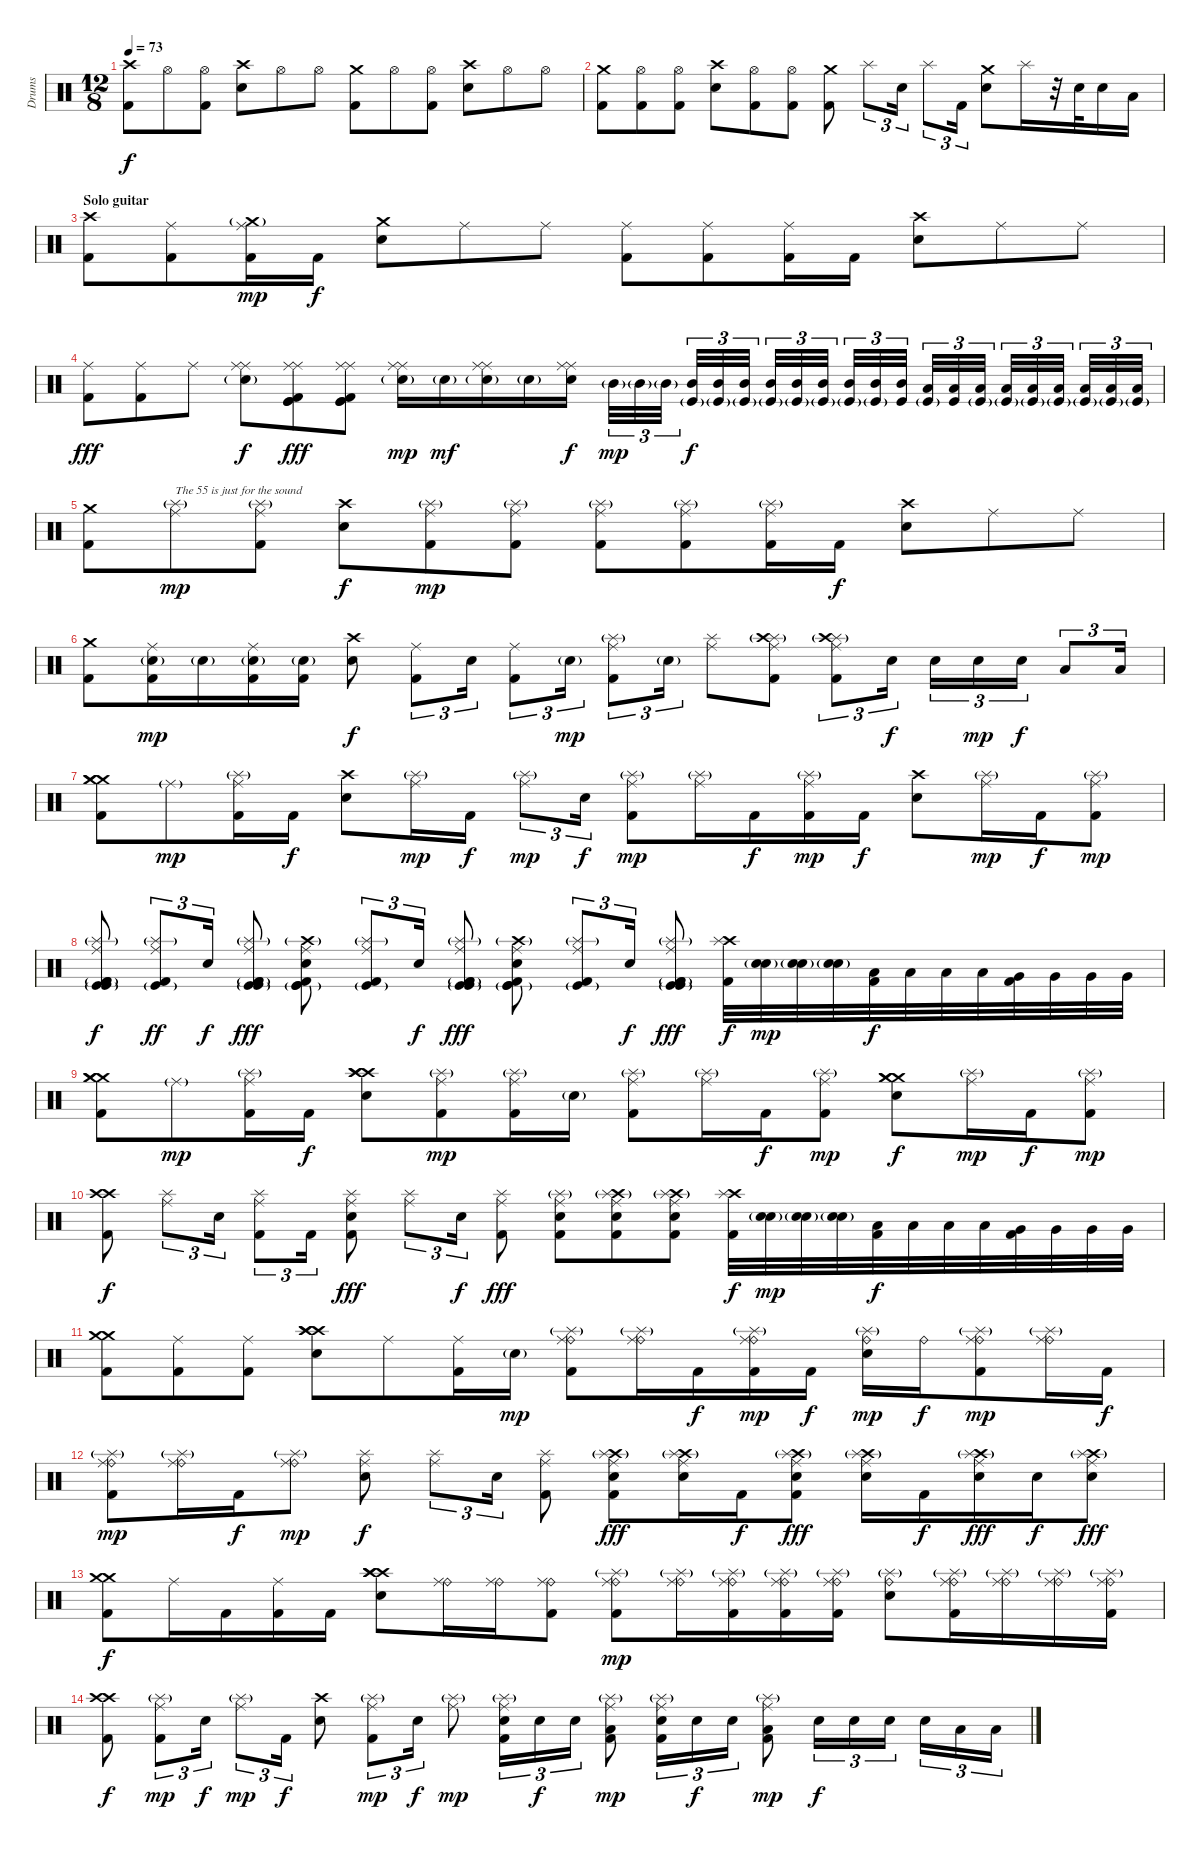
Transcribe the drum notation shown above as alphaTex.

\track ("Drums" "Drums") {instrument percussion}
\staff {score}
\articulation defaults
\ts (12 8)
\section ("" "")
\tempo 73
\clef neutral
\ks c
("Crash high (hit)" "Kick (hit) 2").8{dy f volume 10 balance 8} "Hi-Hat (open)".8 ("Hi-Hat (open)" "Kick (hit) 2").8 ("Electric Snare (hit)" "Crash high (hit)").8 "Hi-Hat (open)".8 "Hi-Hat (open)".8 ("Crash medium (hit)" "Kick (hit) 2").8 "Hi-Hat (open)".8 ("Hi-Hat (open)" "Kick (hit) 2").8 ("Electric Snare (hit)" "Crash high (hit)").8 "Hi-Hat (open)".8 "Hi-Hat (open)".8 |
("Crash medium (hit)" "Kick (hit) 2").8 ("Hi-Hat (open)" "Kick (hit) 2").8 ("Hi-Hat (open)" "Kick (hit) 2").8 ("Electric Snare (hit)" "Crash high (hit)").8 ("Hi-Hat (open)" "Kick (hit) 2").8 ("Hi-Hat (open)" "Kick (hit) 2").8 ("Crash medium (hit)" "Kick (hit) 2").8 "Splash (hit)".8{tu (3 2)} "Electric Snare (hit)".16{tu (3 2)} "Splash (hit)".8{tu (3 2)} "Kick (hit) 2".16{tu (3 2)} ("Electric Snare (hit)" "Crash medium (hit)").8 "Splash (hit)".16 r.32 "Electric Snare (hit)".32 "Electric Snare (hit)".16 "Low Tom (hit)".16 |
\section ("" "Solo guitar")
("Crash high (hit)" "Kick (hit) 2").8 ("Ride (middle)" "Kick (hit) 2").8 ("Crash medium (hit)"{g} "Ride (middle)" "Kick (hit) 2").16{dy mp} "Kick (hit) 2".16{dy f} ("Electric Snare (hit)" "Crash medium (hit)").8 "Ride (middle)".8 "Ride (middle)".8 ("Ride (middle)" "Kick (hit) 2").8 ("Ride (middle)" "Kick (hit) 2").8 ("Ride (middle)" "Kick (hit) 2").16 "Kick (hit) 2".16 ("Electric Snare (hit)" "Crash high (hit)").8 "Ride (middle)".8 "Ride (middle)".8 |
("Ride (middle)" "Kick (hit) 2").8{dy fff} ("Ride (middle)" "Kick (hit) 2").8 "Ride (middle)".8 ("Electric Snare (hit)"{g} "Ride (middle)" "Ride (middle)").8{dy f} ("Kick (hit)" "Kick (hit)" "Ride (middle)" "Ride (middle)" "Kick (hit) 2").8{dy fff} ("Kick (hit)" "Kick (hit)" "Ride (middle)" "Ride (middle)" "Kick (hit) 2").8 ("Electric Snare (hit)"{g} "Ride (middle)" "Ride (middle)").16{dy mp} "Electric Snare (hit)"{g}.16{dy mf} ("Electric Snare (hit)"{g} "Ride (middle)" "Ride (middle)").16 "Electric Snare (hit)"{g}.16 ("Electric Snare (hit)" "Ride (middle)" "Ride (middle)").16{dy f} "Mid Tom (hit)"{g}.32{tu (3 2) dy mp} "Mid Tom (hit)"{g}.32{tu (3 2)} "Mid Tom (hit)"{g}.32{tu (3 2)} ("Kick (hit)"{g} "Mid Tom (hit)").32{tu (3 2) dy f volume 10 balance 0} ("Kick (hit)"{g} "Mid Tom (hit)").32{tu (3 2)} ("Kick (hit)"{g} "Mid Tom (hit)").32{tu (3 2)} ("Kick (hit)"{g} "Mid Tom (hit)").32{tu (3 2)} ("Kick (hit)"{g} "Mid Tom (hit)").32{tu (3 2)} ("Kick (hit)"{g} "Mid Tom (hit)").32{tu (3 2)} ("Kick (hit)"{g} "Mid Tom (hit)").32{tu (3 2)} ("Kick (hit)"{g} "Mid Tom (hit)").32{tu (3 2)} ("Kick (hit)" "Mid Tom (hit)").32{tu (3 2)} ("Kick (hit)"{g} "Low Tom (hit)").32{tu (3 2)} ("Kick (hit)" "Low Tom (hit)").32{tu (3 2)} ("Kick (hit)"{g} "Low Tom (hit)").32{tu (3 2)} ("Kick (hit)"{g} "Low Tom (hit)").32{tu (3 2)} ("Kick (hit)"{g} "Low Tom (hit)").32{tu (3 2)} ("Kick (hit)"{g} "Low Tom (hit)").32{tu (3 2)} ("Kick (hit)"{g} "Low Tom (hit)").32{tu (3 2)} ("Kick (hit)"{g} "Low Tom (hit)").32{tu (3 2)} ("Kick (hit)"{g} "Low Tom (hit)").32{tu (3 2)} |
("Crash medium (hit)" "Kick (hit) 2").8{volume 10 balance 8} ("Splash (hit)"{g} "Ride (middle)").8{txt "The 55 is just for the sound" dy mp} ("Splash (hit)"{g} "Ride (middle)" "Kick (hit) 2").8 ("Electric Snare (hit)" "Crash high (hit)").8{dy f} ("Splash (hit)"{g} "Ride (middle)" "Kick (hit) 2").8{dy mp} ("Splash (hit)"{g} "Ride (middle)" "Kick (hit) 2").8 ("Splash (hit)"{g} "Ride (middle)" "Kick (hit) 2").8 ("Splash (hit)"{g} "Ride (middle)" "Kick (hit) 2").8 ("Splash (hit)"{g} "Ride (middle)" "Kick (hit) 2").16 "Kick (hit) 2".16{dy f} ("Electric Snare (hit)" "Crash high (hit)").8 "Ride (middle)".8 "Ride (middle)".8 |
("Crash medium (hit)" "Kick (hit) 2").8 ("Electric Snare (hit)"{g} "Ride (middle)" "Kick (hit) 2").16{dy mp} "Electric Snare (hit)"{g}.16 ("Electric Snare (hit)"{g} "Ride (middle)" "Kick (hit) 2").16 ("Electric Snare (hit)"{g} "Kick (hit) 2").16 ("Electric Snare (hit)" "Crash high (hit)").8{dy f} ("Ride (middle)" "Kick (hit) 2").8{tu (3 2)} "Electric Snare (hit)".16{tu (3 2)} ("Ride (middle)" "Kick (hit) 2").8{tu (3 2)} "Electric Snare (hit)"{g}.16{tu (3 2) dy mp} ("Ride (middle)" "Splash (hit)"{g} "Kick (hit) 2").8{tu (3 2)} "Electric Snare (hit)"{g}.16{tu (3 2)} ("Ride (middle)" "Splash (hit)").8 ("Ride (middle)" "Splash (hit)"{g} "Crash high (hit)"{g} "Kick (hit) 2").8 ("Ride (middle)" "Splash (hit)" "Crash high (hit)"{g} "Kick (hit) 2").8{tu (3 2)} "Electric Snare (hit)".16{tu (3 2) dy f} "Electric Snare (hit)".16{tu (3 2)} "Electric Snare (hit)".16{tu (3 2) dy mp} "Electric Snare (hit)".16{tu (3 2) dy f} "Low Tom (hit)".8{tu (3 2)} "Low Tom (hit)".16{tu (3 2)} |
("Crash medium (hit)" "Crash medium (hit)" "Crash medium (hit)" "Kick (hit) 2").8 "Ride (middle)"{g}.8{dy mp} ("Splash (hit)"{g} "Ride (middle)" "Kick (hit) 2").16 "Kick (hit) 2".16{dy f} ("Electric Snare (hit)" "Crash high (hit)").8 ("Splash (hit)"{g} "Ride (middle)").16{dy mp} "Kick (hit) 2".16{dy f} ("Splash (hit)"{g} "Ride (middle)").8{tu (3 2) dy mp} "Electric Snare (hit)".16{tu (3 2) dy f} ("Splash (hit)"{g} "Ride (middle)" "Kick (hit) 2").8{dy mp} ("Splash (hit)"{g} "Ride (middle)").16 "Kick (hit) 2".16{dy f} ("Splash (hit)"{g} "Ride (middle)" "Kick (hit) 2").16{dy mp} "Kick (hit) 2".16{dy f} ("Electric Snare (hit)" "Crash high (hit)").8 ("Splash (hit)"{g} "Ride (middle)").16{dy mp} "Kick (hit) 2".16{dy f} ("Splash (hit)"{g} "Ride (middle)" "Kick (hit) 2").8{dy mp} |
("Kick (hit) 2"{g} "Kick (hit)"{g} "Splash (hit)"{g} "Ride (middle)" "Kick (hit)"{g} "Kick (hit) 2").8{dy f} ("Splash (hit)"{g} "Ride (middle)" "Kick (hit)"{g} "Kick (hit) 2").8{tu (3 2) dy ff} "Electric Snare (hit)".16{tu (3 2) dy f} ("Kick (hit) 2"{g} "Kick (hit)"{g} "Splash (hit)"{g} "Ride (middle)" "Kick (hit)"{g} "Kick (hit) 2").8{dy fff} ("Electric Snare (hit)" "Kick (hit)"{g} "Crash high (hit)"{g} "Ride (middle)" "Kick (hit)"{g} "Kick (hit) 2").8 ("Splash (hit)"{g} "Ride (middle)" "Kick (hit)"{g} "Kick (hit) 2").8{tu (3 2)} "Electric Snare (hit)".16{tu (3 2) dy f} ("Kick (hit) 2"{g} "Kick (hit)"{g} "Splash (hit)"{g} "Ride (middle)" "Kick (hit)"{g} "Kick (hit) 2").8{dy fff} ("Electric Snare (hit)" "Kick (hit)"{g} "Crash high (hit)"{g} "Ride (middle)" "Kick (hit)"{g} "Kick (hit) 2").8 ("Splash (hit)"{g} "Ride (middle)" "Kick (hit)"{g} "Kick (hit) 2").8{tu (3 2)} "Electric Snare (hit)".16{tu (3 2) dy f} ("Kick (hit) 2"{g} "Kick (hit)"{g} "Splash (hit)"{g} "Ride (middle)" "Kick (hit)"{g} "Kick (hit) 2").8{dy fff} ("Crash high (hit)" "Splash (hit)" "Kick (hit) 2").32{dy f} ("Electric Snare (hit)" "Snare (hit) 2"{g}).32{dy mp} ("Electric Snare (hit)" "Snare (hit) 2"{g}).32 ("Electric Snare (hit)" "Snare (hit) 2"{g}).32 ("Low Tom (hit)" "Kick (hit) 2").32{dy f} "Low Tom (hit)".32 "Low Tom (hit)".32 "Low Tom (hit)".32 ("Very Low Tom (hit)" "Kick (hit) 2").32 "Very Low Tom (hit)".32 "Very Low Tom (hit)".32 "Very Low Tom (hit)".32 |
("Crash medium (hit)" "Crash medium (hit)" "Crash medium (hit)" "Kick (hit) 2").8 "Ride (middle)"{g}.8{dy mp} ("Splash (hit)"{g} "Ride (middle)" "Kick (hit) 2").16 "Kick (hit) 2".16{dy f} ("Crash high (hit)" "Electric Snare (hit)" "Crash high (hit)" "Crash high (hit)").8 ("Splash (hit)"{g} "Ride (middle)" "Kick (hit) 2").8{dy mp} ("Splash (hit)"{g} "Ride (middle)" "Kick (hit) 2").16 "Electric Snare (hit)"{g}.16 ("Splash (hit)"{g} "Ride (middle)" "Kick (hit) 2").8 ("Splash (hit)"{g} "Ride (middle)").16 "Kick (hit) 2".16{dy f} ("Splash (hit)"{g} "Ride (middle)" "Kick (hit) 2").8{dy mp} ("Crash medium (hit)" "Electric Snare (hit)" "Crash medium (hit)" "Crash medium (hit)").8{dy f} ("Splash (hit)"{g} "Ride (middle)").16{dy mp} "Kick (hit) 2".16{dy f} ("Splash (hit)"{g} "Ride (middle)" "Kick (hit) 2").8{dy mp} |
("Crash high (hit)" "Crash high (hit)" "Kick (hit) 2").8{dy f} ("Splash (hit)" "Ride (middle)").8{tu (3 2)} "Electric Snare (hit)".16{tu (3 2)} ("Splash (hit)" "Ride (middle)" "Kick (hit) 2").8{tu (3 2)} "Kick (hit) 2".16{tu (3 2)} ("Splash (hit)" "Electric Snare (hit)" "Ride (middle)" "Kick (hit) 2").8{dy fff} ("Splash (hit)" "Ride (middle)").8{tu (3 2)} "Electric Snare (hit)".16{tu (3 2) dy f} ("Splash (hit)" "Ride (middle)" "Kick (hit) 2").8{dy fff} ("Splash (hit)"{g} "Electric Snare (hit)" "Ride (middle)" "Kick (hit) 2").8 ("Crash high (hit)"{g} "Splash (hit)"{g} "Electric Snare (hit)" "Ride (middle)" "Kick (hit) 2").8 ("Crash high (hit)"{g} "Splash (hit)"{g} "Electric Snare (hit)" "Ride (middle)" "Kick (hit) 2").8 ("Crash high (hit)" "Splash (hit)" "Kick (hit) 2").32{dy f} ("Electric Snare (hit)" "Snare (hit) 2"{g}).32{dy mp} ("Electric Snare (hit)" "Snare (hit) 2"{g}).32 ("Electric Snare (hit)" "Snare (hit) 2"{g}).32 ("Low Tom (hit)" "Kick (hit) 2").32{dy f} "Low Tom (hit)".32 "Low Tom (hit)".32 "Low Tom (hit)".32 ("Very Low Tom (hit)" "Kick (hit) 2").32 "Very Low Tom (hit)".32 "Very Low Tom (hit)".32 "Very Low Tom (hit)".32 |
("Crash medium (hit)" "Crash medium (hit)" "Kick (hit) 2").8 ("Ride (middle)" "Kick (hit) 2").8 ("Ride (middle)" "Kick (hit) 2").8 ("Crash high (hit)" "Electric Snare (hit)" "Crash high (hit)" "Crash high (hit)").8 "Ride (middle)".8 ("Ride (middle)" "Kick (hit) 2").16 "Electric Snare (hit)"{g}.16{dy mp} ("Ride (bell)" "Splash (hit)"{g} "Ride (middle)" "Kick (hit) 2").8 ("Ride (bell)" "Splash (hit)"{g} "Ride (middle)").16 "Kick (hit) 2".16{dy f} ("Ride (bell)" "Splash (hit)"{g} "Ride (middle)" "Kick (hit) 2").16{dy mp} "Kick (hit) 2".16{dy f} ("Ride (bell)" "Splash (hit)"{g} "Electric Snare (hit)").16{dy mp} "Ride (bell)".16{dy f} ("Ride (bell)" "Splash (hit)"{g} "Ride (middle)" "Kick (hit) 2").8{dy mp} ("Ride (bell)" "Splash (hit)"{g} "Ride (middle)").16 "Kick (hit) 2".16{dy f} |
("Ride (bell)" "Splash (hit)"{g} "Ride (middle)" "Kick (hit) 2").8{dy mp} ("Ride (bell)" "Splash (hit)"{g} "Ride (middle)").16 "Kick (hit) 2".16{dy f} ("Ride (bell)" "Splash (hit)"{g} "Ride (middle)").8{dy mp} ("Splash (hit)" "Electric Snare (hit)" "Ride (middle)").8{dy f} ("Splash (hit)" "Ride (middle)").8{tu (3 2)} "Electric Snare (hit)".16{tu (3 2)} ("Splash (hit)" "Ride (middle)" "Kick (hit) 2").8 ("Crash high (hit)"{g} "Splash (hit)"{g} "Electric Snare (hit)" "Ride (middle)" "Kick (hit) 2").8{dy fff} ("Crash high (hit)"{g} "Splash (hit)"{g} "Electric Snare (hit)" "Ride (middle)").16 "Kick (hit) 2".16{dy f} ("Crash high (hit)"{g} "Splash (hit)"{g} "Electric Snare (hit)" "Ride (middle)" "Kick (hit) 2").8{dy fff} ("Crash high (hit)"{g} "Splash (hit)"{g} "Electric Snare (hit)" "Ride (middle)").16 "Kick (hit) 2".16{dy f} ("Crash high (hit)"{g} "Splash (hit)"{g} "Electric Snare (hit)" "Ride (middle)").16{dy fff} "Electric Snare (hit)".16{dy f} ("Crash high (hit)"{g} "Splash (hit)"{g} "Electric Snare (hit)" "Ride (middle)").8{dy fff} |
("Crash medium (hit)" "Crash medium (hit)" "Kick (hit) 2").8{dy f} "Ride (middle)".16 "Kick (hit) 2".16 ("Ride (middle)" "Kick (hit) 2").16 "Kick (hit) 2".16 ("Crash high (hit)" "Electric Snare (hit)" "Crash high (hit)" "Crash high (hit)").8 ("Ride (bell)" "Ride (middle)").16 ("Ride (bell)" "Ride (middle)").16 ("Ride (bell)" "Ride (middle)" "Kick (hit) 2").8 ("Ride (bell)" "Splash (hit)"{g} "Ride (middle)" "Kick (hit) 2").8{dy mp} ("Ride (bell)" "Splash (hit)"{g} "Ride (middle)").16 ("Ride (bell)" "Splash (hit)"{g} "Ride (middle)" "Kick (hit) 2").16 ("Ride (bell)" "Splash (hit)"{g} "Ride (middle)" "Kick (hit) 2").16 ("Ride (bell)" "Splash (hit)"{g} "Ride (middle)" "Kick (hit) 2").16 ("Ride (bell)" "Splash (hit)"{g} "Electric Snare (hit)").8 ("Ride (bell)" "Splash (hit)"{g} "Ride (middle)" "Kick (hit) 2").16 ("Ride (bell)" "Splash (hit)"{g} "Ride (middle)").16 ("Ride (bell)" "Splash (hit)"{g} "Ride (middle)").16 ("Ride (bell)" "Splash (hit)"{g} "Ride (middle)" "Kick (hit) 2").16 |
("Crash high (hit)" "Crash high (hit)" "Kick (hit) 2").8{dy f} ("Splash (hit)"{g} "Ride (middle)" "Kick (hit) 2").8{tu (3 2) dy mp} "Electric Snare (hit)".16{tu (3 2) dy f} ("Splash (hit)"{g} "Ride (middle)").8{tu (3 2) dy mp} "Kick (hit) 2".16{tu (3 2) dy f} ("Electric Snare (hit)" "Crash high (hit)").8 ("Splash (hit)"{g} "Ride (middle)" "Kick (hit) 2").8{tu (3 2) dy mp} "Electric Snare (hit)".16{tu (3 2) dy f} ("Splash (hit)"{g} "Ride (middle)").8{dy mp} ("Splash (hit)"{g} "Electric Snare (hit)" "Ride (middle)" "Kick (hit) 2").16{tu (3 2)} "Electric Snare (hit)".16{tu (3 2) dy f} "Electric Snare (hit)".16{tu (3 2)} ("Splash (hit)"{g} "Low Tom (hit)" "Ride (middle)" "Kick (hit) 2").8{dy mp} ("Splash (hit)"{g} "Electric Snare (hit)" "Ride (middle)" "Kick (hit) 2").16{tu (3 2)} "Electric Snare (hit)".16{tu (3 2) dy f} "Electric Snare (hit)".16{tu (3 2)} ("Splash (hit)"{g} "Low Tom (hit)" "Ride (middle)" "Kick (hit) 2").8{dy mp} "Electric Snare (hit)".16{tu (3 2) dy f} "Electric Snare (hit)".16{tu (3 2)} "Electric Snare (hit)".16{tu (3 2)} "Electric Snare (hit)".16{tu (3 2)} "Low Tom (hit)".16{tu (3 2)} "Low Tom (hit)".16{tu (3 2)}
